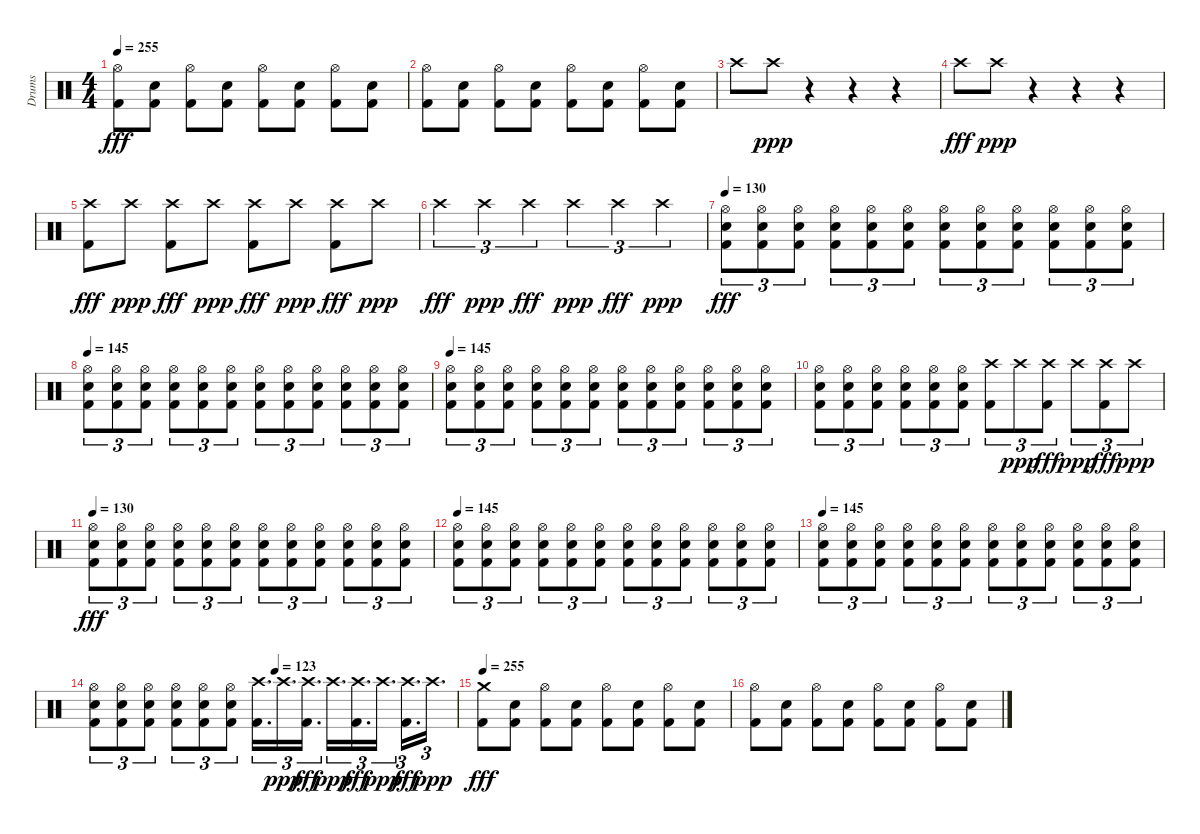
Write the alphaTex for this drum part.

\track ("Drums" "Drums") {instrument percussion}
\staff {score}
\articulation defaults
\ts (4 4)
\tempo 255
\clef neutral
\ks c
("Hi-Hat (open)" "Kick (hit) 2").8{dy fff} ("Electric Snare (hit)" "Kick (hit) 2").8 ("Hi-Hat (open)" "Kick (hit) 2").8 ("Electric Snare (hit)" "Kick (hit) 2").8 ("Hi-Hat (open)" "Kick (hit) 2").8 ("Electric Snare (hit)" "Kick (hit) 2").8 ("Hi-Hat (open)" "Kick (hit) 2").8 ("Electric Snare (hit)" "Kick (hit) 2").8 |
("Hi-Hat (open)" "Kick (hit) 2").8 ("Electric Snare (hit)" "Kick (hit) 2").8 ("Hi-Hat (open)" "Kick (hit) 2").8 ("Electric Snare (hit)" "Kick (hit) 2").8 ("Hi-Hat (open)" "Kick (hit) 2").8 ("Electric Snare (hit)" "Kick (hit) 2").8 ("Hi-Hat (open)" "Kick (hit) 2").8 ("Electric Snare (hit)" "Kick (hit) 2").8 |
"Crash high (hit)".8 "Crash high (hit)".8{dy ppp} r.4 r.4 r.4 |
"Crash high (hit)".8{dy fff} "Crash high (hit)".8{dy ppp} r.4 r.4 r.4 |
("Crash high (hit)" "Kick (hit) 2").8{dy fff} "Crash high (hit)".8{dy ppp} ("Crash high (hit)" "Kick (hit) 2").8{dy fff} "Crash high (hit)".8{dy ppp} ("Crash high (hit)" "Kick (hit) 2").8{dy fff} "Crash high (hit)".8{dy ppp} ("Crash high (hit)" "Kick (hit) 2").8{dy fff} "Crash high (hit)".8{dy ppp} |
"Crash high (hit)".4{tu (3 2) dy fff} "Crash high (hit)".4{tu (3 2) dy ppp} "Crash high (hit)".4{tu (3 2) dy fff} "Crash high (hit)".4{tu (3 2) dy ppp} "Crash high (hit)".4{tu (3 2) dy fff} "Crash high (hit)".4{tu (3 2) dy ppp} |
\tempo 130
("Hi-Hat (open)" "Electric Snare (hit)" "Kick (hit) 2").8{tu (3 2) dy fff} ("Hi-Hat (open)" "Electric Snare (hit)" "Kick (hit) 2").8{tu (3 2)} ("Hi-Hat (open)" "Electric Snare (hit)" "Kick (hit) 2").8{tu (3 2)} ("Hi-Hat (open)" "Electric Snare (hit)" "Kick (hit) 2").8{tu (3 2)} ("Hi-Hat (open)" "Electric Snare (hit)" "Kick (hit) 2").8{tu (3 2)} ("Hi-Hat (open)" "Electric Snare (hit)" "Kick (hit) 2").8{tu (3 2)} ("Hi-Hat (open)" "Electric Snare (hit)" "Kick (hit) 2").8{tu (3 2)} ("Hi-Hat (open)" "Electric Snare (hit)" "Kick (hit) 2").8{tu (3 2)} ("Hi-Hat (open)" "Electric Snare (hit)" "Kick (hit) 2").8{tu (3 2)} ("Hi-Hat (open)" "Electric Snare (hit)" "Kick (hit) 2").8{tu (3 2)} ("Hi-Hat (open)" "Electric Snare (hit)" "Kick (hit) 2").8{tu (3 2)} ("Hi-Hat (open)" "Electric Snare (hit)" "Kick (hit) 2").8{tu (3 2)} |
\tempo 145
("Hi-Hat (open)" "Electric Snare (hit)" "Kick (hit) 2").8{tu (3 2)} ("Hi-Hat (open)" "Electric Snare (hit)" "Kick (hit) 2").8{tu (3 2)} ("Hi-Hat (open)" "Electric Snare (hit)" "Kick (hit) 2").8{tu (3 2)} ("Hi-Hat (open)" "Electric Snare (hit)" "Kick (hit) 2").8{tu (3 2)} ("Hi-Hat (open)" "Electric Snare (hit)" "Kick (hit) 2").8{tu (3 2)} ("Hi-Hat (open)" "Electric Snare (hit)" "Kick (hit) 2").8{tu (3 2)} ("Hi-Hat (open)" "Electric Snare (hit)" "Kick (hit) 2").8{tu (3 2)} ("Hi-Hat (open)" "Electric Snare (hit)" "Kick (hit) 2").8{tu (3 2)} ("Hi-Hat (open)" "Electric Snare (hit)" "Kick (hit) 2").8{tu (3 2)} ("Hi-Hat (open)" "Electric Snare (hit)" "Kick (hit) 2").8{tu (3 2)} ("Hi-Hat (open)" "Electric Snare (hit)" "Kick (hit) 2").8{tu (3 2)} ("Hi-Hat (open)" "Electric Snare (hit)" "Kick (hit) 2").8{tu (3 2)} |
\tempo 145
("Hi-Hat (open)" "Electric Snare (hit)" "Kick (hit) 2").8{tu (3 2)} ("Hi-Hat (open)" "Electric Snare (hit)" "Kick (hit) 2").8{tu (3 2)} ("Hi-Hat (open)" "Electric Snare (hit)" "Kick (hit) 2").8{tu (3 2)} ("Hi-Hat (open)" "Electric Snare (hit)" "Kick (hit) 2").8{tu (3 2)} ("Hi-Hat (open)" "Electric Snare (hit)" "Kick (hit) 2").8{tu (3 2)} ("Hi-Hat (open)" "Electric Snare (hit)" "Kick (hit) 2").8{tu (3 2)} ("Hi-Hat (open)" "Electric Snare (hit)" "Kick (hit) 2").8{tu (3 2)} ("Hi-Hat (open)" "Electric Snare (hit)" "Kick (hit) 2").8{tu (3 2)} ("Hi-Hat (open)" "Electric Snare (hit)" "Kick (hit) 2").8{tu (3 2)} ("Hi-Hat (open)" "Electric Snare (hit)" "Kick (hit) 2").8{tu (3 2)} ("Hi-Hat (open)" "Electric Snare (hit)" "Kick (hit) 2").8{tu (3 2)} ("Hi-Hat (open)" "Electric Snare (hit)" "Kick (hit) 2").8{tu (3 2)} |
("Hi-Hat (open)" "Electric Snare (hit)" "Kick (hit) 2").8{tu (3 2)} ("Hi-Hat (open)" "Electric Snare (hit)" "Kick (hit) 2").8{tu (3 2)} ("Hi-Hat (open)" "Electric Snare (hit)" "Kick (hit) 2").8{tu (3 2)} ("Hi-Hat (open)" "Electric Snare (hit)" "Kick (hit) 2").8{tu (3 2)} ("Hi-Hat (open)" "Electric Snare (hit)" "Kick (hit) 2").8{tu (3 2)} ("Hi-Hat (open)" "Electric Snare (hit)" "Kick (hit) 2").8{tu (3 2)} ("Crash high (hit)" "Kick (hit) 2").8{tu (3 2)} "Crash high (hit)".8{tu (3 2) dy ppp} ("Crash high (hit)" "Kick (hit) 2").8{tu (3 2) dy fff} "Crash high (hit)".8{tu (3 2) dy ppp} ("Crash high (hit)" "Kick (hit) 2").8{tu (3 2) dy fff} "Crash high (hit)".8{tu (3 2) dy ppp} |
\tempo 130
("Hi-Hat (open)" "Electric Snare (hit)" "Kick (hit) 2").8{tu (3 2) dy fff} ("Hi-Hat (open)" "Electric Snare (hit)" "Kick (hit) 2").8{tu (3 2)} ("Hi-Hat (open)" "Electric Snare (hit)" "Kick (hit) 2").8{tu (3 2)} ("Hi-Hat (open)" "Electric Snare (hit)" "Kick (hit) 2").8{tu (3 2)} ("Hi-Hat (open)" "Electric Snare (hit)" "Kick (hit) 2").8{tu (3 2)} ("Hi-Hat (open)" "Electric Snare (hit)" "Kick (hit) 2").8{tu (3 2)} ("Hi-Hat (open)" "Electric Snare (hit)" "Kick (hit) 2").8{tu (3 2)} ("Hi-Hat (open)" "Electric Snare (hit)" "Kick (hit) 2").8{tu (3 2)} ("Hi-Hat (open)" "Electric Snare (hit)" "Kick (hit) 2").8{tu (3 2)} ("Hi-Hat (open)" "Electric Snare (hit)" "Kick (hit) 2").8{tu (3 2)} ("Hi-Hat (open)" "Electric Snare (hit)" "Kick (hit) 2").8{tu (3 2)} ("Hi-Hat (open)" "Electric Snare (hit)" "Kick (hit) 2").8{tu (3 2)} |
\tempo 145
("Hi-Hat (open)" "Electric Snare (hit)" "Kick (hit) 2").8{tu (3 2)} ("Hi-Hat (open)" "Electric Snare (hit)" "Kick (hit) 2").8{tu (3 2)} ("Hi-Hat (open)" "Electric Snare (hit)" "Kick (hit) 2").8{tu (3 2)} ("Hi-Hat (open)" "Electric Snare (hit)" "Kick (hit) 2").8{tu (3 2)} ("Hi-Hat (open)" "Electric Snare (hit)" "Kick (hit) 2").8{tu (3 2)} ("Hi-Hat (open)" "Electric Snare (hit)" "Kick (hit) 2").8{tu (3 2)} ("Hi-Hat (open)" "Electric Snare (hit)" "Kick (hit) 2").8{tu (3 2)} ("Hi-Hat (open)" "Electric Snare (hit)" "Kick (hit) 2").8{tu (3 2)} ("Hi-Hat (open)" "Electric Snare (hit)" "Kick (hit) 2").8{tu (3 2)} ("Hi-Hat (open)" "Electric Snare (hit)" "Kick (hit) 2").8{tu (3 2)} ("Hi-Hat (open)" "Electric Snare (hit)" "Kick (hit) 2").8{tu (3 2)} ("Hi-Hat (open)" "Electric Snare (hit)" "Kick (hit) 2").8{tu (3 2)} |
\tempo 145
("Hi-Hat (open)" "Electric Snare (hit)" "Kick (hit) 2").8{tu (3 2)} ("Hi-Hat (open)" "Electric Snare (hit)" "Kick (hit) 2").8{tu (3 2)} ("Hi-Hat (open)" "Electric Snare (hit)" "Kick (hit) 2").8{tu (3 2)} ("Hi-Hat (open)" "Electric Snare (hit)" "Kick (hit) 2").8{tu (3 2)} ("Hi-Hat (open)" "Electric Snare (hit)" "Kick (hit) 2").8{tu (3 2)} ("Hi-Hat (open)" "Electric Snare (hit)" "Kick (hit) 2").8{tu (3 2)} ("Hi-Hat (open)" "Electric Snare (hit)" "Kick (hit) 2").8{tu (3 2)} ("Hi-Hat (open)" "Electric Snare (hit)" "Kick (hit) 2").8{tu (3 2)} ("Hi-Hat (open)" "Electric Snare (hit)" "Kick (hit) 2").8{tu (3 2)} ("Hi-Hat (open)" "Electric Snare (hit)" "Kick (hit) 2").8{tu (3 2)} ("Hi-Hat (open)" "Electric Snare (hit)" "Kick (hit) 2").8{tu (3 2)} ("Hi-Hat (open)" "Electric Snare (hit)" "Kick (hit) 2").8{tu (3 2)} |
\tempo (123 0.5)
("Hi-Hat (open)" "Electric Snare (hit)" "Kick (hit) 2").8{tu (3 2)} ("Hi-Hat (open)" "Electric Snare (hit)" "Kick (hit) 2").8{tu (3 2)} ("Hi-Hat (open)" "Electric Snare (hit)" "Kick (hit) 2").8{tu (3 2)} ("Hi-Hat (open)" "Electric Snare (hit)" "Kick (hit) 2").8{tu (3 2)} ("Hi-Hat (open)" "Electric Snare (hit)" "Kick (hit) 2").8{tu (3 2)} ("Hi-Hat (open)" "Electric Snare (hit)" "Kick (hit) 2").8{tu (3 2)} ("Crash high (hit)" "Kick (hit) 2").16{d tu (3 2)} "Crash high (hit)".16{d tu (3 2) dy ppp} ("Crash high (hit)" "Kick (hit) 2").16{d tu (3 2) dy fff} "Crash high (hit)".16{d tu (3 2) dy ppp} ("Crash high (hit)" "Kick (hit) 2").16{d tu (3 2) dy fff} "Crash high (hit)".16{d tu (3 2) dy ppp} ("Crash high (hit)" "Kick (hit) 2").16{d tu (3 2) dy fff} "Crash high (hit)".16{d tu (3 2) dy ppp} |
\tempo 255
("Crash medium (hit)" "Kick (hit) 2").8{dy fff} ("Electric Snare (hit)" "Kick (hit) 2").8 ("Hi-Hat (open)" "Kick (hit) 2").8 ("Electric Snare (hit)" "Kick (hit) 2").8 ("Hi-Hat (open)" "Kick (hit) 2").8 ("Electric Snare (hit)" "Kick (hit) 2").8 ("Hi-Hat (open)" "Kick (hit) 2").8 ("Electric Snare (hit)" "Kick (hit) 2").8 |
("Hi-Hat (open)" "Kick (hit) 2").8 ("Electric Snare (hit)" "Kick (hit) 2").8 ("Hi-Hat (open)" "Kick (hit) 2").8 ("Electric Snare (hit)" "Kick (hit) 2").8 ("Hi-Hat (open)" "Kick (hit) 2").8 ("Electric Snare (hit)" "Kick (hit) 2").8 ("Hi-Hat (open)" "Kick (hit) 2").8 ("Electric Snare (hit)" "Kick (hit) 2").8
